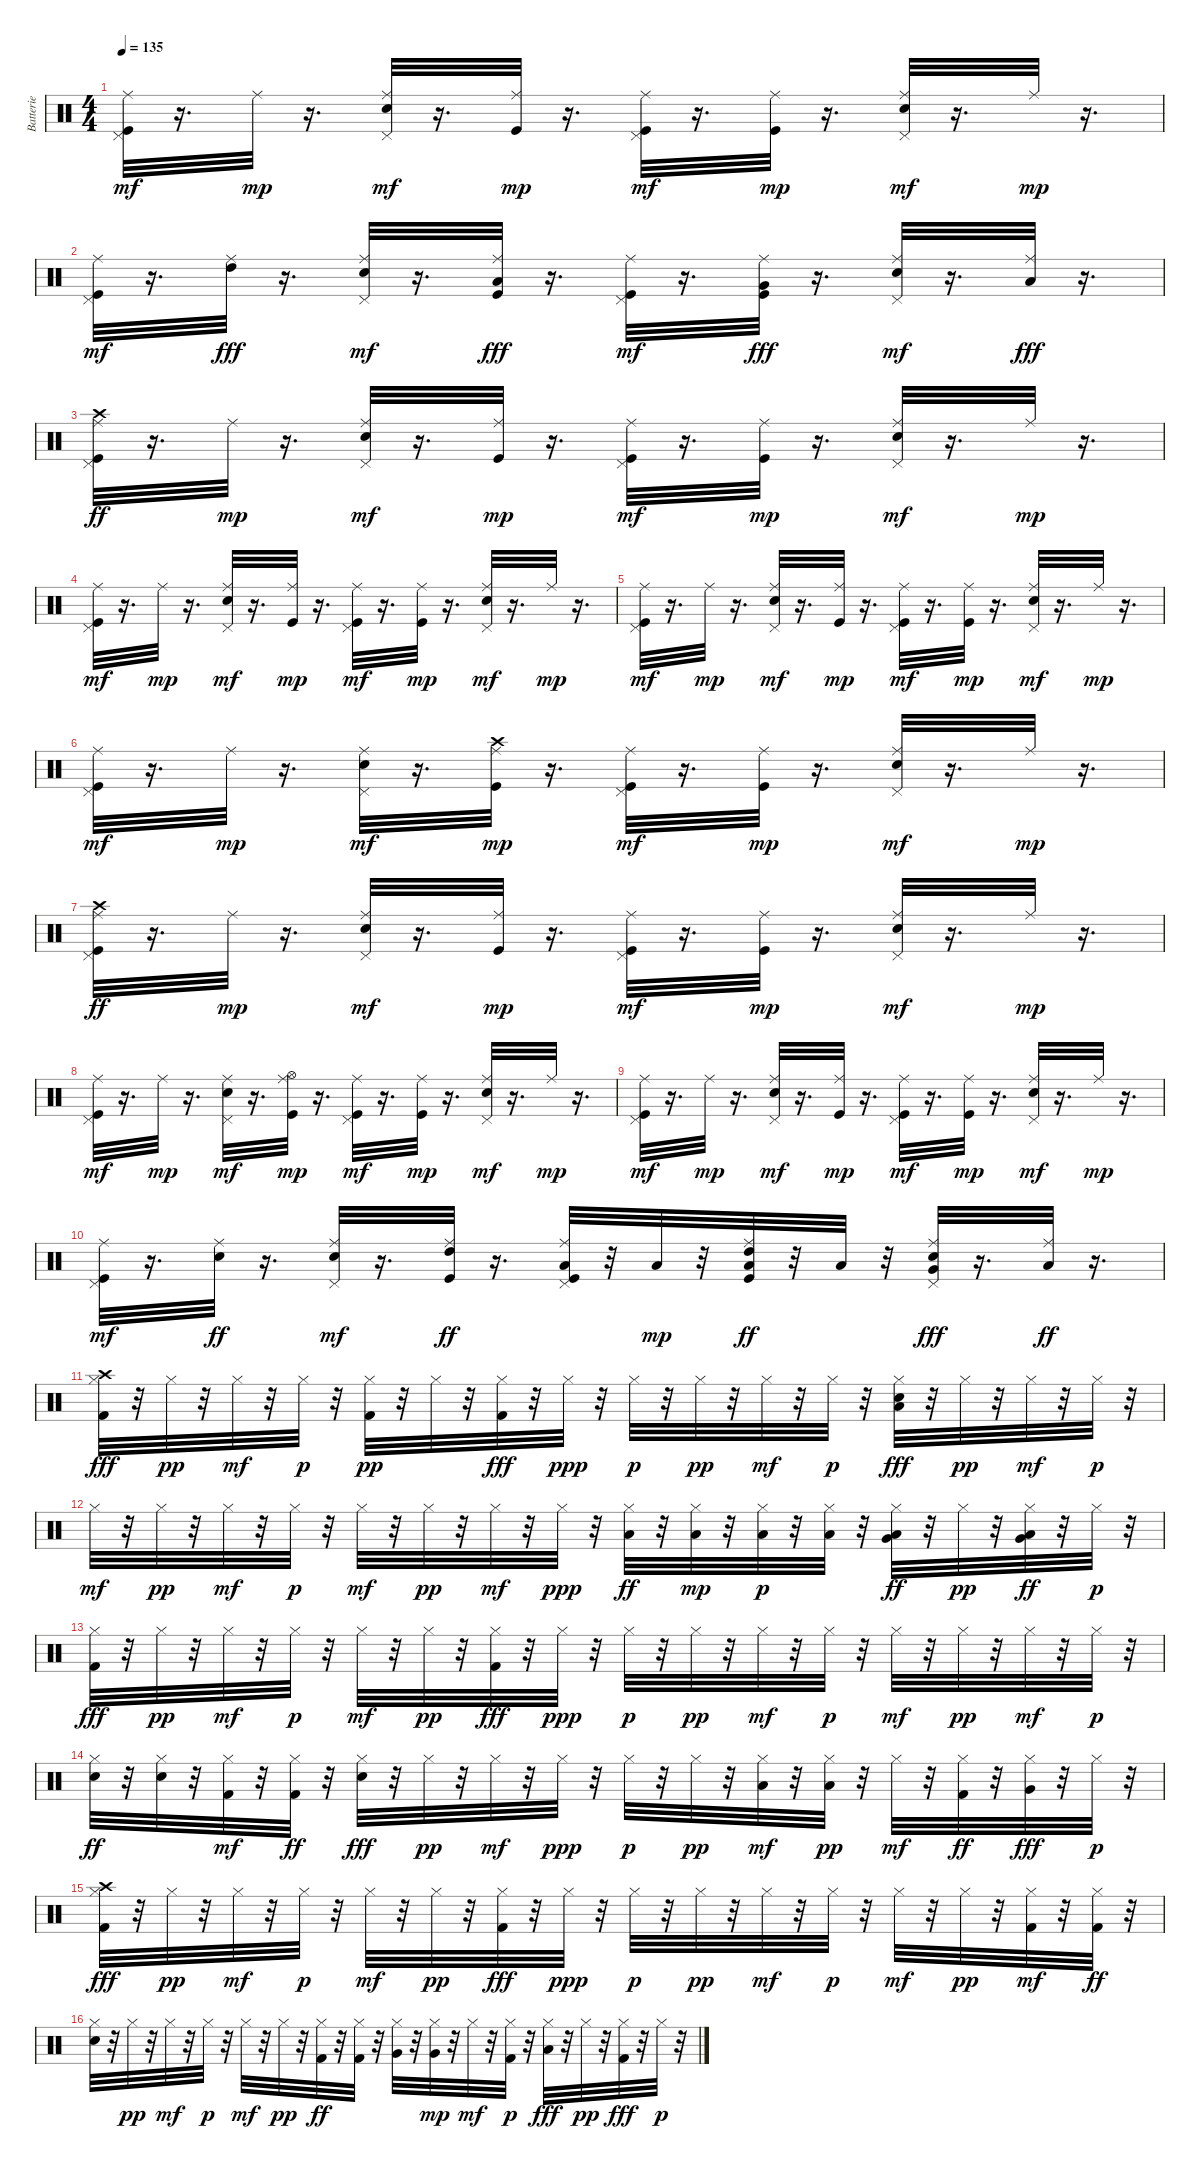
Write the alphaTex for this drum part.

\track ("Batterie" "Batterie") {instrument percussion}
\staff {score}
\articulation defaults
\ts (4 4)
\tempo 135
\clef neutral
\ks c
("Kick (hit)" "Pedal Hi-Hat (hit)" "Ride (middle)").32{dy mf} r.16{d} "Ride (middle)".32{dy mp} r.16{d} ("Electric Snare (hit)" "Pedal Hi-Hat (hit)" "Ride (middle)").32{dy mf} r.16{d} ("Kick (hit)" "Ride (middle)").32{dy mp} r.16{d} ("Kick (hit)" "Pedal Hi-Hat (hit)" "Ride (middle)").32{dy mf} r.16{d} ("Kick (hit)" "Ride (middle)").32{dy mp} r.16{d} ("Electric Snare (hit)" "Pedal Hi-Hat (hit)" "Ride (middle)").32{dy mf} r.16{d} "Ride (middle)".32{dy mp} r.16{d} |
("Kick (hit)" "Pedal Hi-Hat (hit)" "Ride (middle)").32{dy mf} r.16{d} ("Ride (middle)" "High Tom (hit)").32{dy fff} r.16{d} ("Electric Snare (hit)" "Pedal Hi-Hat (hit)" "Ride (middle)").32{dy mf} r.16{d} ("Kick (hit)" "Ride (middle)" "Low Tom (hit)").32{dy fff} r.16{d} ("Kick (hit)" "Pedal Hi-Hat (hit)" "Ride (middle)").32{dy mf} r.16{d} ("Kick (hit)" "Ride (middle)" "Very Low Tom (hit)").32{dy fff} r.16{d} ("Electric Snare (hit)" "Pedal Hi-Hat (hit)" "Ride (middle)").32{dy mf} r.16{d} ("Ride (middle)" "Low Floor Tom (hit)").32{dy fff} r.16{d} |
("Kick (hit)" "Pedal Hi-Hat (hit)" "Ride (middle)" "Crash high (hit)").32{dy ff} r.16{d} "Ride (middle)".32{dy mp} r.16{d} ("Electric Snare (hit)" "Pedal Hi-Hat (hit)" "Ride (middle)").32{dy mf} r.16{d} ("Kick (hit)" "Ride (middle)").32{dy mp} r.16{d} ("Kick (hit)" "Pedal Hi-Hat (hit)" "Ride (middle)").32{dy mf} r.16{d} ("Kick (hit)" "Ride (middle)").32{dy mp} r.16{d} ("Electric Snare (hit)" "Pedal Hi-Hat (hit)" "Ride (middle)").32{dy mf} r.16{d} "Ride (middle)".32{dy mp} r.16{d} |
("Kick (hit)" "Pedal Hi-Hat (hit)" "Ride (middle)").32{dy mf} r.16{d} "Ride (middle)".32{dy mp} r.16{d} ("Electric Snare (hit)" "Pedal Hi-Hat (hit)" "Ride (middle)").32{dy mf} r.16{d} ("Kick (hit)" "Ride (middle)").32{dy mp} r.16{d} ("Kick (hit)" "Pedal Hi-Hat (hit)" "Ride (middle)").32{dy mf} r.16{d} ("Kick (hit)" "Ride (middle)").32{dy mp} r.16{d} ("Electric Snare (hit)" "Pedal Hi-Hat (hit)" "Ride (middle)").32{dy mf} r.16{d} "Ride (middle)".32{dy mp} r.16{d} |
("Kick (hit)" "Pedal Hi-Hat (hit)" "Ride (middle)").32{dy mf} r.16{d} "Ride (middle)".32{dy mp} r.16{d} ("Electric Snare (hit)" "Pedal Hi-Hat (hit)" "Ride (middle)").32{dy mf} r.16{d} ("Kick (hit)" "Ride (middle)").32{dy mp} r.16{d} ("Kick (hit)" "Pedal Hi-Hat (hit)" "Ride (middle)").32{dy mf} r.16{d} ("Kick (hit)" "Ride (middle)").32{dy mp} r.16{d} ("Electric Snare (hit)" "Pedal Hi-Hat (hit)" "Ride (middle)").32{dy mf} r.16{d} "Ride (middle)".32{dy mp} r.16{d} |
("Kick (hit)" "Pedal Hi-Hat (hit)" "Ride (middle)").32{dy mf} r.16{d} "Ride (middle)".32{dy mp} r.16{d} ("Electric Snare (hit)" "Pedal Hi-Hat (hit)" "Ride (middle)").32{dy mf} r.16{d} ("Kick (hit)" "Ride (middle)" "Crash high (hit)").32{dy mp} r.16{d} ("Kick (hit)" "Pedal Hi-Hat (hit)" "Ride (middle)").32{dy mf} r.16{d} ("Kick (hit)" "Ride (middle)").32{dy mp} r.16{d} ("Electric Snare (hit)" "Pedal Hi-Hat (hit)" "Ride (middle)").32{dy mf} r.16{d} "Ride (middle)".32{dy mp} r.16{d} |
("Kick (hit)" "Pedal Hi-Hat (hit)" "Ride (middle)" "Crash high (hit)").32{dy ff} r.16{d} "Ride (middle)".32{dy mp} r.16{d} ("Electric Snare (hit)" "Pedal Hi-Hat (hit)" "Ride (middle)").32{dy mf} r.16{d} ("Kick (hit)" "Ride (middle)").32{dy mp} r.16{d} ("Kick (hit)" "Pedal Hi-Hat (hit)" "Ride (middle)").32{dy mf} r.16{d} ("Kick (hit)" "Ride (middle)").32{dy mp} r.16{d} ("Electric Snare (hit)" "Pedal Hi-Hat (hit)" "Ride (middle)").32{dy mf} r.16{d} "Ride (middle)".32{dy mp} r.16{d} |
("Kick (hit)" "Pedal Hi-Hat (hit)" "Ride (middle)").32{dy mf} r.16{d} "Ride (middle)".32{dy mp} r.16{d} ("Electric Snare (hit)" "Pedal Hi-Hat (hit)" "Ride (middle)").32{dy mf} r.16{d} ("Kick (hit)" "Ride (middle)" "Hi-Hat (open)").32{dy mp} r.16{d} ("Kick (hit)" "Pedal Hi-Hat (hit)" "Ride (middle)").32{dy mf} r.16{d} ("Kick (hit)" "Ride (middle)").32{dy mp} r.16{d} ("Electric Snare (hit)" "Pedal Hi-Hat (hit)" "Ride (middle)").32{dy mf} r.16{d} "Ride (middle)".32{dy mp} r.16{d} |
("Kick (hit)" "Pedal Hi-Hat (hit)" "Ride (middle)").32{dy mf} r.16{d} "Ride (middle)".32{dy mp} r.16{d} ("Electric Snare (hit)" "Pedal Hi-Hat (hit)" "Ride (middle)").32{dy mf} r.16{d} ("Kick (hit)" "Ride (middle)").32{dy mp} r.16{d} ("Kick (hit)" "Pedal Hi-Hat (hit)" "Ride (middle)").32{dy mf} r.16{d} ("Kick (hit)" "Ride (middle)").32{dy mp} r.16{d} ("Electric Snare (hit)" "Pedal Hi-Hat (hit)" "Ride (middle)").32{dy mf} r.16{d} "Ride (middle)".32{dy mp} r.16{d} |
("Kick (hit)" "Pedal Hi-Hat (hit)" "Ride (middle)").32{dy mf} r.16{d} ("Ride (middle)" "Electric Snare (hit)").32{dy ff} r.16{d} ("Electric Snare (hit)" "Pedal Hi-Hat (hit)" "Ride (middle)").32{dy mf} r.16{d} ("Kick (hit)" "Ride (middle)" "High Tom (hit)").32{dy ff} r.16{d} ("Kick (hit)" "Pedal Hi-Hat (hit)" "Ride (middle)" "Low Tom (hit)").32 r.32 "Low Tom (hit)".32{dy mp} r.32 ("Kick (hit)" "Ride (middle)" "Low Tom (hit)" "High Tom (hit)").32{dy ff} r.32 "Low Tom (hit)".32 r.32 ("Electric Snare (hit)" "Pedal Hi-Hat (hit)" "Ride (middle)" "Very Low Tom (hit)").32{dy fff} r.16{d} ("Ride (middle)" "Low Floor Tom (hit)").32{dy ff} r.16{d} |
("Hi-Hat (closed)" "Kick (hit) 2" "Crash high (hit)").32{dy fff} r.32 "Hi-Hat (closed)".32{dy pp} r.32 "Hi-Hat (closed)".32{dy mf} r.32 "Hi-Hat (closed)".32{dy p} r.32 ("Hi-Hat (closed)" "Kick (hit) 2").32{dy pp} r.32 "Hi-Hat (closed)".32 r.32 ("Hi-Hat (closed)" "Kick (hit) 2").32{dy fff} r.32 "Hi-Hat (closed)".32{dy ppp} r.32 "Hi-Hat (closed)".32{dy p} r.32 "Hi-Hat (closed)".32{dy pp} r.32 "Hi-Hat (closed)".32{dy mf} r.32 "Hi-Hat (closed)".32{dy p} r.32 ("Hi-Hat (closed)" "Electric Snare (hit)" "Low Floor Tom (hit)").32{dy fff} r.32 "Hi-Hat (closed)".32{dy pp} r.32 "Hi-Hat (closed)".32{dy mf} r.32 "Hi-Hat (closed)".32{dy p} r.32 |
"Hi-Hat (closed)".32{dy mf} r.32 "Hi-Hat (closed)".32{dy pp} r.32 "Hi-Hat (closed)".32{dy mf} r.32 "Hi-Hat (closed)".32{dy p} r.32 "Hi-Hat (closed)".32{dy mf} r.32 "Hi-Hat (closed)".32{dy pp} r.32 "Hi-Hat (closed)".32{dy mf} r.32 "Hi-Hat (closed)".32{dy ppp} r.32 ("Hi-Hat (closed)" "Low Tom (hit)").32{dy ff} r.32 ("Hi-Hat (closed)" "Low Tom (hit)").32{dy mp} r.32 ("Hi-Hat (closed)" "Low Tom (hit)").32{dy p} r.32 ("Hi-Hat (closed)" "Low Tom (hit)").32 r.32 ("Hi-Hat (closed)" "Very Low Tom (hit)" "Low Floor Tom (hit)").32{dy ff} r.32 "Hi-Hat (closed)".32{dy pp} r.32 ("Hi-Hat (closed)" "Low Floor Tom (hit)" "Very Low Tom (hit)").32{dy ff} r.32 "Hi-Hat (closed)".32{dy p} r.32 |
("Hi-Hat (closed)" "Kick (hit) 2").32{dy fff} r.32 "Hi-Hat (closed)".32{dy pp} r.32 "Hi-Hat (closed)".32{dy mf} r.32 "Hi-Hat (closed)".32{dy p} r.32 "Hi-Hat (closed)".32{dy mf} r.32 "Hi-Hat (closed)".32{dy pp} r.32 ("Hi-Hat (closed)" "Kick (hit) 2").32{dy fff} r.32 "Hi-Hat (closed)".32{dy ppp} r.32 "Hi-Hat (closed)".32{dy p} r.32 "Hi-Hat (closed)".32{dy pp} r.32 "Hi-Hat (closed)".32{dy mf} r.32 "Hi-Hat (closed)".32{dy p} r.32 "Hi-Hat (closed)".32{dy mf} r.32 "Hi-Hat (closed)".32{dy pp} r.32 "Hi-Hat (closed)".32{dy mf} r.32 "Hi-Hat (closed)".32{dy p} r.32 |
("Hi-Hat (closed)" "Electric Snare (hit)").32{dy ff} r.32 ("Hi-Hat (closed)" "Electric Snare (hit)").32 r.32 ("Hi-Hat (closed)" "Kick (hit) 2").32{dy mf} r.32 ("Hi-Hat (closed)" "Kick (hit) 2").32{dy ff} r.32 ("Hi-Hat (closed)" "Electric Snare (hit)").32{dy fff} r.32 "Hi-Hat (closed)".32{dy pp} r.32 "Hi-Hat (closed)".32{dy mf} r.32 "Hi-Hat (closed)".32{dy ppp} r.32 "Hi-Hat (closed)".32{dy p} r.32 "Hi-Hat (closed)".32{dy pp} r.32 ("Hi-Hat (closed)" "Low Tom (hit)").32{dy mf} r.32 ("Hi-Hat (closed)" "Low Tom (hit)").32{dy pp} r.32 "Hi-Hat (closed)".32{dy mf} r.32 ("Hi-Hat (closed)" "Kick (hit) 2").32{dy ff} r.32 ("Hi-Hat (closed)" "Very Low Tom (hit)").32{dy fff} r.32 "Hi-Hat (closed)".32{dy p} r.32 |
("Hi-Hat (closed)" "Kick (hit) 2" "Crash high (hit)").32{dy fff} r.32 "Hi-Hat (closed)".32{dy pp} r.32 "Hi-Hat (closed)".32{dy mf} r.32 "Hi-Hat (closed)".32{dy p} r.32 "Hi-Hat (closed)".32{dy mf} r.32 "Hi-Hat (closed)".32{dy pp} r.32 ("Hi-Hat (closed)" "Kick (hit) 2").32{dy fff} r.32 "Hi-Hat (closed)".32{dy ppp} r.32 "Hi-Hat (closed)".32{dy p} r.32 "Hi-Hat (closed)".32{dy pp} r.32 "Hi-Hat (closed)".32{dy mf} r.32 "Hi-Hat (closed)".32{dy p} r.32 "Hi-Hat (closed)".32{dy mf} r.32 "Hi-Hat (closed)".32{dy pp} r.32 ("Hi-Hat (closed)" "Kick (hit) 2").32{dy mf} r.32 ("Hi-Hat (closed)" "Kick (hit) 2").32{dy ff} r.32 |
("Hi-Hat (closed)" "Electric Snare (hit)").32 r.32 "Hi-Hat (closed)".32{dy pp} r.32 "Hi-Hat (closed)".32{dy mf} r.32 "Hi-Hat (closed)".32{dy p} r.32 "Hi-Hat (closed)".32{dy mf} r.32 "Hi-Hat (closed)".32{dy pp} r.32 ("Hi-Hat (closed)" "Kick (hit) 2").32{dy ff} r.32 ("Hi-Hat (closed)" "Kick (hit) 2").32 r.32 ("Hi-Hat (closed)" "Very Low Tom (hit)").32 r.32 ("Hi-Hat (closed)" "Very Low Tom (hit)").32{dy mp} r.32 "Hi-Hat (closed)".32{dy mf} r.32 ("Hi-Hat (closed)" "Kick (hit) 2").32{dy p} r.32 ("Hi-Hat (closed)" "Low Floor Tom (hit)").32{dy fff} r.32 "Hi-Hat (closed)".32{dy pp} r.32 ("Hi-Hat (closed)" "Kick (hit) 2").32{dy fff} r.32 "Hi-Hat (closed)".32{dy p} r.32
